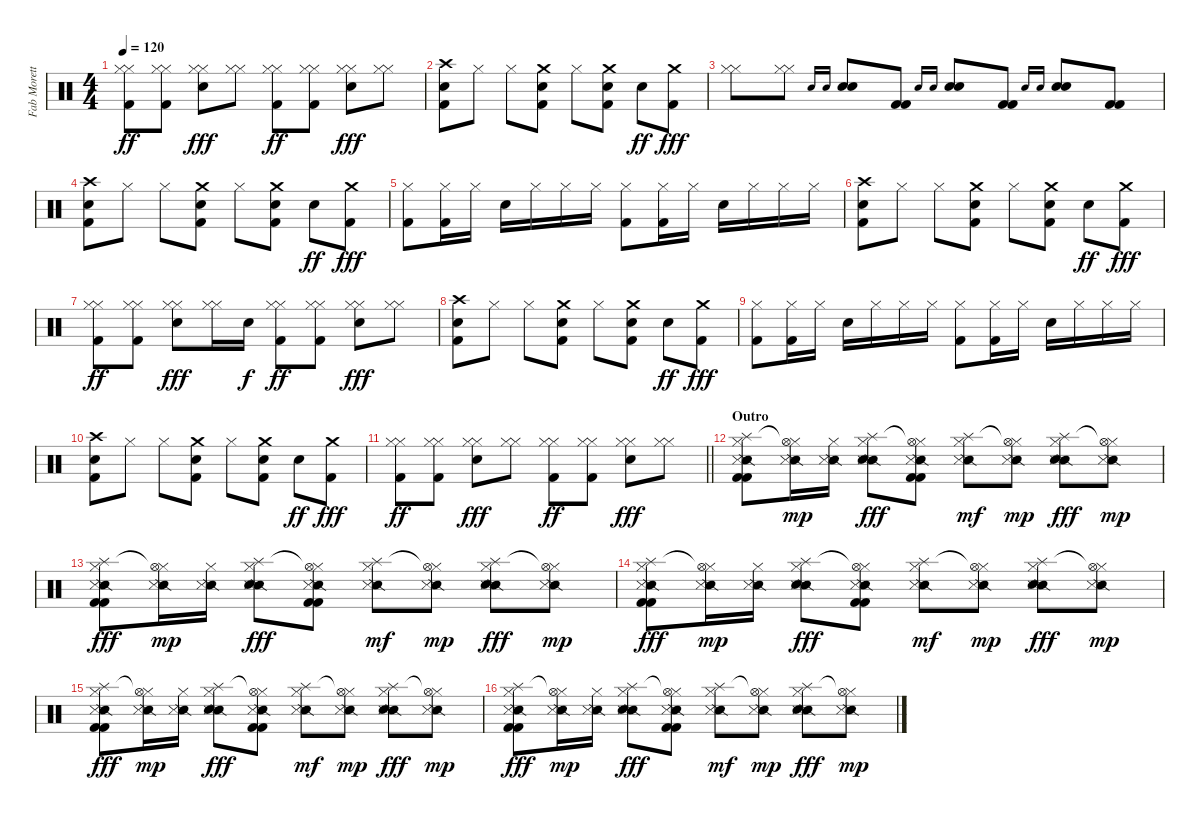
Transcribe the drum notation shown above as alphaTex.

\track ("Fab Moretti - Drums" "Fab Morett") {instrument percussion}
\staff {score}
\articulation defaults
\ts (4 4)
\tempo 120
\clef neutral
\ks c
("Hi-Hat (closed)" "Hi-Hat (closed)" "Kick (hit) 2").8{dy ff} ("Hi-Hat (closed)" "Hi-Hat (closed)" "Kick (hit) 2").8 ("Hi-Hat (closed)" "Hi-Hat (closed)" "Electric Snare (hit)").8{dy fff} ("Hi-Hat (closed)" "Hi-Hat (closed)").8 ("Hi-Hat (closed)" "Hi-Hat (closed)" "Kick (hit) 2").8{dy ff} ("Hi-Hat (closed)" "Hi-Hat (closed)" "Kick (hit) 2").8 ("Hi-Hat (closed)" "Hi-Hat (closed)" "Electric Snare (hit)").8{dy fff} ("Hi-Hat (closed)" "Hi-Hat (closed)").8 |
("Crash high (hit)" "Electric Snare (hit)" "Kick (hit) 2").8 "Hi-Hat (closed)".8 "Hi-Hat (closed)".8 ("Crash medium (hit)" "Electric Snare (hit)" "Kick (hit) 2").8 "Hi-Hat (closed)".8 ("Crash medium (hit)" "Electric Snare (hit)" "Kick (hit) 2").8 "Electric Snare (hit)".8{dy ff} ("Crash medium (hit)" "Kick (hit) 2").8{dy fff} |
("Hi-Hat (closed)" "Hi-Hat (closed)").8 ("Hi-Hat (closed)" "Hi-Hat (closed)").8 "Electric Snare (hit)".16{gr onbeat} "Electric Snare (hit)".16{gr onbeat} ("Electric Snare (hit)" "Electric Snare (hit)").8 ("Kick (hit) 2" "Kick (hit) 2").8 "Electric Snare (hit)".16{gr onbeat} "Electric Snare (hit)".16{gr onbeat} ("Electric Snare (hit)" "Electric Snare (hit)").8 ("Kick (hit) 2" "Kick (hit) 2").8 "Electric Snare (hit)".16{gr onbeat} "Electric Snare (hit)".16{gr onbeat} ("Electric Snare (hit)" "Electric Snare (hit)").8 ("Kick (hit) 2" "Kick (hit) 2").8 |
("Crash high (hit)" "Electric Snare (hit)" "Kick (hit) 2").8 "Hi-Hat (closed)".8 "Hi-Hat (closed)".8 ("Crash medium (hit)" "Electric Snare (hit)" "Kick (hit) 2").8 "Hi-Hat (closed)".8 ("Crash medium (hit)" "Electric Snare (hit)" "Kick (hit) 2").8 "Electric Snare (hit)".8{dy ff} ("Crash medium (hit)" "Kick (hit) 2").8{dy fff} |
("Hi-Hat (closed)" "Kick (hit) 2").8 ("Hi-Hat (closed)" "Kick (hit) 2").16 "Hi-Hat (closed)".16 "Electric Snare (hit)".16 "Hi-Hat (closed)".16 "Hi-Hat (closed)".16 "Hi-Hat (closed)".16 ("Hi-Hat (closed)" "Kick (hit) 2").8 ("Hi-Hat (closed)" "Kick (hit) 2").16 "Hi-Hat (closed)".16 "Electric Snare (hit)".16 "Hi-Hat (closed)".16 "Hi-Hat (closed)".16 "Hi-Hat (closed)".16 |
("Crash high (hit)" "Electric Snare (hit)" "Kick (hit) 2").8 "Hi-Hat (closed)".8 "Hi-Hat (closed)".8 ("Crash medium (hit)" "Electric Snare (hit)" "Kick (hit) 2").8 "Hi-Hat (closed)".8 ("Crash medium (hit)" "Electric Snare (hit)" "Kick (hit) 2").8 "Electric Snare (hit)".8{dy ff} ("Crash medium (hit)" "Kick (hit) 2").8{dy fff} |
("Hi-Hat (closed)" "Hi-Hat (closed)" "Kick (hit) 2").8{dy ff} ("Hi-Hat (closed)" "Hi-Hat (closed)" "Kick (hit) 2").8 ("Hi-Hat (closed)" "Hi-Hat (closed)" "Electric Snare (hit)").8{dy fff} ("Hi-Hat (closed)" "Hi-Hat (closed)").16 "Electric Snare (hit)".16{dy f} ("Hi-Hat (closed)" "Hi-Hat (closed)" "Kick (hit) 2").8{dy ff} ("Hi-Hat (closed)" "Hi-Hat (closed)" "Kick (hit) 2").8 ("Hi-Hat (closed)" "Hi-Hat (closed)" "Electric Snare (hit)").8{dy fff} ("Hi-Hat (closed)" "Hi-Hat (closed)").8 |
("Crash high (hit)" "Electric Snare (hit)" "Kick (hit) 2").8 "Hi-Hat (closed)".8 "Hi-Hat (closed)".8 ("Crash medium (hit)" "Electric Snare (hit)" "Kick (hit) 2").8 "Hi-Hat (closed)".8 ("Crash medium (hit)" "Electric Snare (hit)" "Kick (hit) 2").8 "Electric Snare (hit)".8{dy ff} ("Crash medium (hit)" "Kick (hit) 2").8{dy fff} |
("Hi-Hat (closed)" "Kick (hit) 2").8 ("Hi-Hat (closed)" "Kick (hit) 2").16 "Hi-Hat (closed)".16 "Electric Snare (hit)".16 "Hi-Hat (closed)".16 "Hi-Hat (closed)".16 "Hi-Hat (closed)".16 ("Hi-Hat (closed)" "Kick (hit) 2").8 ("Hi-Hat (closed)" "Kick (hit) 2").16 "Hi-Hat (closed)".16 "Electric Snare (hit)".16 "Hi-Hat (closed)".16 "Hi-Hat (closed)".16 "Hi-Hat (closed)".16 |
("Crash high (hit)" "Electric Snare (hit)" "Kick (hit) 2").8 "Hi-Hat (closed)".8 "Hi-Hat (closed)".8 ("Crash medium (hit)" "Electric Snare (hit)" "Kick (hit) 2").8 "Hi-Hat (closed)".8 ("Crash medium (hit)" "Electric Snare (hit)" "Kick (hit) 2").8 "Electric Snare (hit)".8{dy ff} ("Crash medium (hit)" "Kick (hit) 2").8{dy fff} |
\barLineRight lightlight
("Hi-Hat (closed)" "Hi-Hat (closed)" "Kick (hit) 2").8{dy ff} ("Hi-Hat (closed)" "Hi-Hat (closed)" "Kick (hit) 2").8 ("Hi-Hat (closed)" "Hi-Hat (closed)" "Electric Snare (hit)").8{dy fff} ("Hi-Hat (closed)" "Hi-Hat (closed)").8 ("Hi-Hat (closed)" "Hi-Hat (closed)" "Kick (hit) 2").8{dy ff} ("Hi-Hat (closed)" "Hi-Hat (closed)" "Kick (hit) 2").8 ("Hi-Hat (closed)" "Hi-Hat (closed)" "Electric Snare (hit)").8{dy fff} ("Hi-Hat (closed)" "Hi-Hat (closed)").8 |
\section ("" "Outro")
("Snare (side stick) 2" "Metronome (hit)" "Hi-Hat (closed)" "Splash (hit)" "Kick (hit) 2" "Kick (hit) 2").8 ("Snare (side stick) 2" "Metronome (hit)" "Hi-Hat (closed)" "Hi-Hat (open)"{t}).16{dy mp} ("Snare (side stick) 2" "Metronome (hit)" "Hi-Hat (closed)").16 ("Snare (side stick) 2" "Metronome (hit)" "Hi-Hat (closed)" "Splash (hit)" "Electric Snare (hit)").8{dy fff} ("Snare (side stick) 2" "Metronome (hit)" "Hi-Hat (closed)" "Hi-Hat (open)"{t} "Kick (hit) 2" "Kick (hit) 2").8 ("Snare (side stick) 2" "Metronome (hit)" "Hi-Hat (closed)" "Splash (hit)").8{dy mf} ("Snare (side stick) 2" "Metronome (hit)" "Hi-Hat (closed)" "Hi-Hat (open)"{t}).8{dy mp} ("Snare (side stick) 2" "Metronome (hit)" "Hi-Hat (closed)" "Splash (hit)" "Electric Snare (hit)").8{dy fff} ("Snare (side stick) 2" "Metronome (hit)" "Hi-Hat (closed)" "Hi-Hat (open)"{t}).8{dy mp} |
("Snare (side stick) 2" "Metronome (hit)" "Hi-Hat (closed)" "Splash (hit)" "Kick (hit) 2" "Kick (hit) 2").8{dy fff} ("Snare (side stick) 2" "Metronome (hit)" "Hi-Hat (closed)" "Hi-Hat (open)"{t}).16{dy mp} ("Snare (side stick) 2" "Metronome (hit)" "Hi-Hat (closed)").16 ("Snare (side stick) 2" "Metronome (hit)" "Hi-Hat (closed)" "Splash (hit)" "Electric Snare (hit)").8{dy fff} ("Snare (side stick) 2" "Metronome (hit)" "Hi-Hat (closed)" "Hi-Hat (open)"{t} "Kick (hit) 2" "Kick (hit) 2").8 ("Snare (side stick) 2" "Metronome (hit)" "Hi-Hat (closed)" "Splash (hit)").8{dy mf} ("Snare (side stick) 2" "Metronome (hit)" "Hi-Hat (closed)" "Hi-Hat (open)"{t}).8{dy mp} ("Snare (side stick) 2" "Metronome (hit)" "Hi-Hat (closed)" "Splash (hit)" "Electric Snare (hit)").8{dy fff} ("Snare (side stick) 2" "Metronome (hit)" "Hi-Hat (closed)" "Hi-Hat (open)"{t}).8{dy mp} |
("Snare (side stick) 2" "Metronome (hit)" "Hi-Hat (closed)" "Splash (hit)" "Kick (hit) 2" "Kick (hit) 2").8{dy fff} ("Snare (side stick) 2" "Metronome (hit)" "Hi-Hat (closed)" "Hi-Hat (open)"{t}).16{dy mp} ("Snare (side stick) 2" "Metronome (hit)" "Hi-Hat (closed)").16 ("Snare (side stick) 2" "Metronome (hit)" "Hi-Hat (closed)" "Splash (hit)" "Electric Snare (hit)").8{dy fff} ("Snare (side stick) 2" "Metronome (hit)" "Hi-Hat (closed)" "Hi-Hat (open)"{t} "Kick (hit) 2" "Kick (hit) 2").8 ("Snare (side stick) 2" "Metronome (hit)" "Hi-Hat (closed)" "Splash (hit)").8{dy mf} ("Snare (side stick) 2" "Metronome (hit)" "Hi-Hat (closed)" "Hi-Hat (open)"{t}).8{dy mp} ("Snare (side stick) 2" "Metronome (hit)" "Hi-Hat (closed)" "Splash (hit)" "Electric Snare (hit)").8{dy fff} ("Snare (side stick) 2" "Metronome (hit)" "Hi-Hat (closed)" "Hi-Hat (open)"{t}).8{dy mp} |
("Snare (side stick) 2" "Metronome (hit)" "Hi-Hat (closed)" "Splash (hit)" "Kick (hit) 2" "Kick (hit) 2").8{dy fff} ("Snare (side stick) 2" "Metronome (hit)" "Hi-Hat (closed)" "Hi-Hat (open)"{t}).16{dy mp} ("Snare (side stick) 2" "Metronome (hit)" "Hi-Hat (closed)").16 ("Snare (side stick) 2" "Metronome (hit)" "Hi-Hat (closed)" "Splash (hit)" "Electric Snare (hit)").8{dy fff} ("Snare (side stick) 2" "Metronome (hit)" "Hi-Hat (closed)" "Hi-Hat (open)"{t} "Kick (hit) 2" "Kick (hit) 2").8 ("Snare (side stick) 2" "Metronome (hit)" "Hi-Hat (closed)" "Splash (hit)").8{dy mf} ("Snare (side stick) 2" "Metronome (hit)" "Hi-Hat (closed)" "Hi-Hat (open)"{t}).8{dy mp} ("Snare (side stick) 2" "Metronome (hit)" "Hi-Hat (closed)" "Splash (hit)" "Electric Snare (hit)").8{dy fff} ("Snare (side stick) 2" "Metronome (hit)" "Hi-Hat (closed)" "Hi-Hat (open)"{t}).8{dy mp} |
("Snare (side stick) 2" "Metronome (hit)" "Hi-Hat (closed)" "Splash (hit)" "Kick (hit) 2" "Kick (hit) 2").8{dy fff} ("Snare (side stick) 2" "Metronome (hit)" "Hi-Hat (closed)" "Hi-Hat (open)"{t}).16{dy mp} ("Snare (side stick) 2" "Metronome (hit)" "Hi-Hat (closed)").16 ("Snare (side stick) 2" "Metronome (hit)" "Hi-Hat (closed)" "Splash (hit)" "Electric Snare (hit)").8{dy fff} ("Snare (side stick) 2" "Metronome (hit)" "Hi-Hat (closed)" "Hi-Hat (open)"{t} "Kick (hit) 2" "Kick (hit) 2").8 ("Snare (side stick) 2" "Metronome (hit)" "Hi-Hat (closed)" "Splash (hit)").8{dy mf} ("Snare (side stick) 2" "Metronome (hit)" "Hi-Hat (closed)" "Hi-Hat (open)"{t}).8{dy mp} ("Snare (side stick) 2" "Metronome (hit)" "Hi-Hat (closed)" "Splash (hit)" "Electric Snare (hit)").8{dy fff} ("Snare (side stick) 2" "Metronome (hit)" "Hi-Hat (closed)" "Hi-Hat (open)"{t}).8{dy mp}
